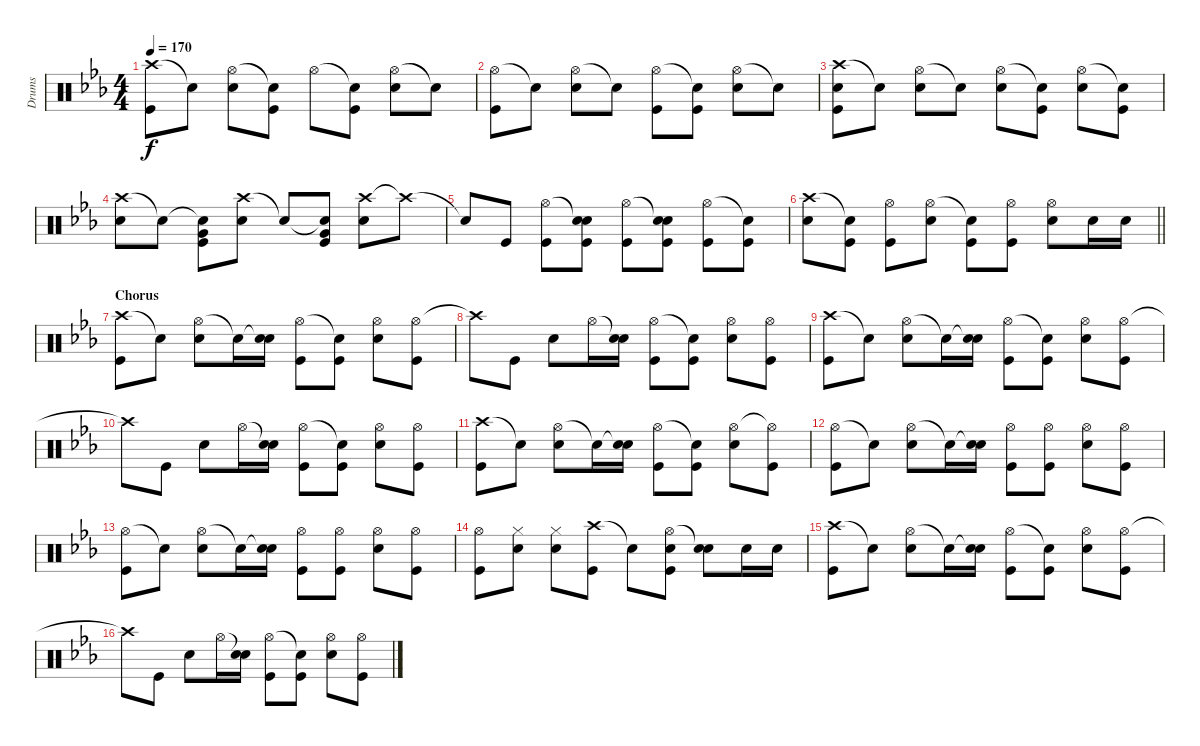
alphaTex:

\track ("Drums" "Drums") {solo instrument percussion}
\staff {score}
\articulation defaults
\ts (4 4)
\tempo 170
\clef neutral
\ks eb
("Crash high (hit)" "Kick (hit)").8{dy f} "Snare (hit)"{t}.8 ("Hi-Hat (open)" "Snare (hit) 2").8 ("Snare (hit)"{t} "Kick (hit)").8 "Hi-Hat (open)".8 ("Snare (hit)"{t} "Kick (hit)").8 ("Hi-Hat (open)" "Snare (hit) 2").8 "Snare (hit)"{t}.8 |
("Hi-Hat (open)" "Kick (hit)").8 "Snare (hit)"{t}.8 ("Hi-Hat (open)" "Snare (hit) 2").8 "Snare (hit)"{t}.8 ("Hi-Hat (open)" "Kick (hit)").8 ("Snare (hit)"{t} "Kick (hit)").8 ("Hi-Hat (open)" "Snare (hit) 2").8 "Snare (hit)"{t}.8 |
("Crash high (hit)" "Snare (hit) 2" "Kick (hit)").8 "Snare (hit)"{t}.8 ("Hi-Hat (open)" "Snare (hit) 2").8 "Snare (hit)"{t}.8 ("Hi-Hat (open)" "Snare (hit) 2").8 ("Snare (hit)"{t} "Kick (hit)").8 ("Hi-Hat (open)" "Snare (hit) 2").8 ("Snare (hit)"{t} "Kick (hit)").8 |
("Crash high (hit)" "Snare (hit) 2").8 "Snare (hit)"{t}.8 ("Snare (hit)"{t} "Very Low Tom (hit)" "Kick (hit)").8 ("Crash high (hit)" "Snare (hit) 2").8 "Snare (hit)"{t}.8 ("Snare (hit)"{t} "Very Low Tom (hit)" "Kick (hit)").8 ("Crash high (hit)" "Snare (hit) 2").8 "Crash high (hit)"{t}.8 |
"Snare (hit)"{t}.8 "Kick (hit)".8 ("Hi-Hat (open)" "Kick (hit)").8 ("Snare (hit)"{t} "Snare (hit) 2" "Kick (hit)").8 ("Hi-Hat (open)" "Kick (hit)").8 ("Snare (hit)"{t} "Snare (hit) 2" "Kick (hit)").8 ("Hi-Hat (open)" "Kick (hit)").8 ("Snare (hit)"{t} "Kick (hit)").8 |
\barLineRight lightlight
("Crash high (hit)" "Snare (hit) 2").8 ("Snare (hit)"{t} "Kick (hit)").8 ("Hi-Hat (open)" "Kick (hit)").8 ("Hi-Hat (open)" "Snare (hit) 2").8 ("Snare (hit)"{t} "Kick (hit)").8 ("Hi-Hat (open)" "Kick (hit)").8 ("Hi-Hat (open)" "Snare (hit) 2").8 "Snare (hit) 2".16 "Snare (hit) 2".16 |
\section ("" "Chorus")
("Crash high (hit)" "Kick (hit)").8 "Snare (hit)"{t}.8 ("Hi-Hat (open)" "Snare (hit) 2").8 "Snare (hit)"{t}.16 ("Snare (hit)"{t} "Snare (hit) 2").16 ("Hi-Hat (open)" "Kick (hit)").8 ("Snare (hit)"{t} "Kick (hit)").8 ("Hi-Hat (open)" "Snare (hit) 2").8 ("Hi-Hat (open)" "Kick (hit)").8 |
"Crash high (hit)"{t}.8 "Kick (hit)".8 "Snare (hit) 2".8 "Hi-Hat (open)".16 ("Snare (hit)"{t} "Snare (hit) 2").16 ("Hi-Hat (open)" "Kick (hit)").8 ("Snare (hit)"{t} "Kick (hit)").8 ("Hi-Hat (open)" "Snare (hit) 2").8 ("Hi-Hat (open)" "Kick (hit)").8 |
("Crash high (hit)" "Kick (hit)").8 "Snare (hit)"{t}.8 ("Hi-Hat (open)" "Snare (hit) 2").8 "Snare (hit)"{t}.16 ("Snare (hit)"{t} "Snare (hit) 2").16 ("Hi-Hat (open)" "Kick (hit)").8 ("Snare (hit)"{t} "Kick (hit)").8 ("Hi-Hat (open)" "Snare (hit) 2").8 ("Hi-Hat (open)" "Kick (hit)").8 |
"Crash high (hit)"{t}.8 "Kick (hit)".8 "Snare (hit) 2".8 "Hi-Hat (open)".16 ("Snare (hit)"{t} "Snare (hit) 2").16 ("Hi-Hat (open)" "Kick (hit)").8 ("Snare (hit)"{t} "Kick (hit)").8 ("Hi-Hat (open)" "Snare (hit) 2").8 ("Hi-Hat (open)" "Kick (hit)").8 |
("Crash high (hit)" "Kick (hit)").8 "Snare (hit)"{t}.8 ("Hi-Hat (open)" "Snare (hit) 2").8 "Snare (hit)"{t}.16 ("Snare (hit)"{t} "Snare (hit) 2").16 ("Hi-Hat (open)" "Kick (hit)").8 ("Snare (hit)"{t} "Kick (hit)").8 ("Hi-Hat (open)" "Snare (hit) 2").8 ("Hi-Hat (open)"{t} "Kick (hit)").8 |
("Hi-Hat (open)" "Kick (hit)").8 "Snare (hit)"{t}.8 ("Hi-Hat (open)" "Snare (hit) 2").8 "Snare (hit)"{t}.16 ("Snare (hit)"{t} "Snare (hit) 2").16 ("Hi-Hat (open)" "Kick (hit)").8 ("Hi-Hat (open)" "Kick (hit)").8 ("Hi-Hat (open)" "Snare (hit) 2").8 ("Hi-Hat (open)" "Kick (hit)").8 |
("Hi-Hat (open)" "Kick (hit)").8 "Snare (hit)"{t}.8 ("Hi-Hat (open)" "Snare (hit) 2").8 "Snare (hit)"{t}.16 ("Snare (hit)"{t} "Snare (hit) 2").16 ("Hi-Hat (open)" "Kick (hit)").8 ("Hi-Hat (open)" "Kick (hit)").8 ("Hi-Hat (open)" "Snare (hit) 2").8 ("Hi-Hat (open)" "Kick (hit)").8 |
("Hi-Hat (open)" "Kick (hit)").8 ("Hi-Hat (closed)" "Snare (hit) 2").8 ("Hi-Hat (closed)" "Snare (hit) 2").8 ("Crash high (hit)" "Kick (hit)").8 "Snare (hit)"{t}.8 ("Hi-Hat (open)" "Snare (hit) 2" "Kick (hit)").8 ("Snare (hit)"{t} "Snare (hit) 2").8 "Snare (hit) 2".16 "Snare (hit) 2".16 |
("Crash high (hit)" "Kick (hit)").8 "Snare (hit)"{t}.8 ("Hi-Hat (open)" "Snare (hit) 2").8 "Snare (hit)"{t}.16 ("Snare (hit)"{t} "Snare (hit) 2").16 ("Hi-Hat (open)" "Kick (hit)").8 ("Snare (hit)"{t} "Kick (hit)").8 ("Hi-Hat (open)" "Snare (hit) 2").8 ("Hi-Hat (open)" "Kick (hit)").8 |
"Crash high (hit)"{t}.8 "Kick (hit)".8 "Snare (hit) 2".8 "Hi-Hat (open)".16 ("Snare (hit)"{t} "Snare (hit) 2").16 ("Hi-Hat (open)" "Kick (hit)").8 ("Snare (hit)"{t} "Kick (hit)").8 ("Hi-Hat (open)" "Snare (hit) 2").8 ("Hi-Hat (open)" "Kick (hit)").8
